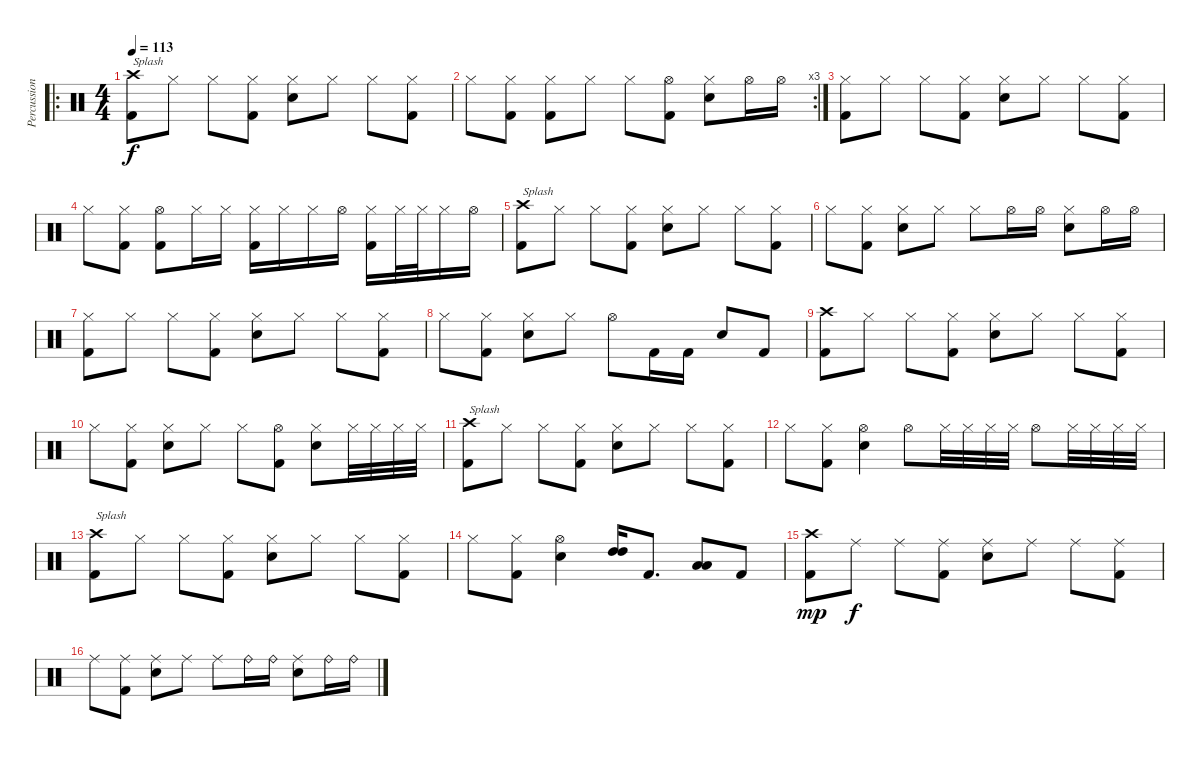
\track ("Percussion" "Percussion") {instrument percussion}
\staff {score}
\articulation defaults
\ro
\ts (4 4)
\tempo 113
\clef neutral
\ks c
("Crash high (hit)" "Kick (hit) 2").8{txt "Splash" dy f} "Hi-Hat (closed)".8 "Hi-Hat (closed)".8 ("Hi-Hat (closed)" "Kick (hit) 2").8 ("Hi-Hat (closed)" "Snare (hit) 2").8 "Hi-Hat (closed)".8 "Hi-Hat (closed)".8 ("Hi-Hat (closed)" "Kick (hit) 2").8 |
\rc 3 "Hi-Hat (closed)".8
("Hi-Hat (closed)" "Kick (hit) 2").8 ("Hi-Hat (closed)" "Kick (hit) 2").8 "Hi-Hat (closed)".8 "Hi-Hat (closed)".8 ("Hi-Hat (open)" "Kick (hit) 2").8 ("Hi-Hat (closed)" "Snare (hit) 2").8 "Hi-Hat (open)".16 "Hi-Hat (open)".16 |
("Hi-Hat (closed)" "Kick (hit) 2").8 "Hi-Hat (closed)".8 "Hi-Hat (closed)".8 ("Hi-Hat (closed)" "Kick (hit) 2").8 ("Hi-Hat (closed)" "Snare (hit) 2").8 "Hi-Hat (closed)".8 "Hi-Hat (closed)".8 ("Hi-Hat (closed)" "Kick (hit) 2").8 |
"Hi-Hat (closed)".8 ("Hi-Hat (closed)" "Kick (hit) 2").8 ("Hi-Hat (open)" "Kick (hit) 2").8 "Hi-Hat (closed)".16 "Hi-Hat (closed)".16 ("Hi-Hat (closed)" "Kick (hit) 2").16 "Hi-Hat (closed)".16 "Hi-Hat (closed)".16 "Hi-Hat (open)".16 ("Hi-Hat (closed)" "Kick (hit) 2").16 "Hi-Hat (closed)".32 "Hi-Hat (closed)".32 "Hi-Hat (closed)".16 "Hi-Hat (open)".16 |
("Crash high (hit)" "Kick (hit) 2").8{txt "Splash"} "Hi-Hat (closed)".8 "Hi-Hat (closed)".8 ("Hi-Hat (closed)" "Kick (hit) 2").8 ("Hi-Hat (closed)" "Snare (hit) 2").8 "Hi-Hat (closed)".8 "Hi-Hat (closed)".8 ("Hi-Hat (closed)" "Kick (hit) 2").8 |
"Hi-Hat (closed)".8 ("Hi-Hat (closed)" "Kick (hit) 2").8 ("Hi-Hat (closed)" "Snare (hit) 2").8 "Hi-Hat (closed)".8 "Hi-Hat (closed)".8 "Hi-Hat (open)".16 "Hi-Hat (open)".16 ("Hi-Hat (closed)" "Snare (hit) 2").8 "Hi-Hat (open)".16 "Hi-Hat (open)".16 |
("Hi-Hat (closed)" "Kick (hit) 2").8 "Hi-Hat (closed)".8 "Hi-Hat (closed)".8 ("Hi-Hat (closed)" "Kick (hit) 2").8 ("Hi-Hat (closed)" "Snare (hit) 2").8 "Hi-Hat (closed)".8 "Hi-Hat (closed)".8 ("Hi-Hat (closed)" "Kick (hit) 2").8 |
"Hi-Hat (closed)".8 ("Hi-Hat (closed)" "Kick (hit) 2").8 ("Hi-Hat (closed)" "Snare (hit) 2").8 "Hi-Hat (closed)".8 "Hi-Hat (open)".8 "Kick (hit) 2".16 "Kick (hit) 2".16 "Snare (hit) 2".8 "Kick (hit) 2".8 |
("Crash high (hit)" "Kick (hit) 2").8 "Hi-Hat (closed)".8 "Hi-Hat (closed)".8 ("Hi-Hat (closed)" "Kick (hit) 2").8 ("Hi-Hat (closed)" "Snare (hit) 2").8 "Hi-Hat (closed)".8 "Hi-Hat (closed)".8 ("Hi-Hat (closed)" "Kick (hit) 2").8 |
"Hi-Hat (closed)".8 ("Hi-Hat (closed)" "Kick (hit) 2").8 ("Hi-Hat (closed)" "Snare (hit) 2").8 "Hi-Hat (closed)".8 "Hi-Hat (closed)".8 ("Hi-Hat (open)" "Kick (hit) 2").8 ("Hi-Hat (closed)" "Snare (hit) 2").8 "Hi-Hat (closed)".32 "Hi-Hat (closed)".32 "Hi-Hat (closed)".32 "Hi-Hat (closed)".32 |
("Crash high (hit)" "Kick (hit) 2").8{txt "Splash"} "Hi-Hat (closed)".8 "Hi-Hat (closed)".8 ("Hi-Hat (closed)" "Kick (hit) 2").8 ("Hi-Hat (closed)" "Snare (hit) 2").8 "Hi-Hat (closed)".8 "Hi-Hat (closed)".8 ("Hi-Hat (closed)" "Kick (hit) 2").8 |
"Hi-Hat (closed)".8 ("Hi-Hat (closed)" "Kick (hit) 2").8 ("Hi-Hat (open)" "Snare (hit) 2").4 "Hi-Hat (open)".8 "Hi-Hat (closed)".32 "Hi-Hat (closed)".32 "Hi-Hat (closed)".32 "Hi-Hat (closed)".32 "Hi-Hat (open)".8 "Hi-Hat (closed)".32 "Hi-Hat (closed)".32 "Hi-Hat (closed)".32 "Hi-Hat (closed)".32 |
("Crash high (hit)" "Kick (hit) 2").8{txt "Splash"} "Hi-Hat (closed)".8 "Hi-Hat (closed)".8 ("Hi-Hat (closed)" "Kick (hit) 2").8 ("Hi-Hat (closed)" "Snare (hit) 2").8 "Hi-Hat (closed)".8 "Hi-Hat (closed)".8 ("Hi-Hat (closed)" "Kick (hit) 2").8 |
"Hi-Hat (closed)".8 ("Hi-Hat (closed)" "Kick (hit) 2").8 ("Hi-Hat (open)" "Snare (hit) 2").4 ("High Tom (hit)" "High Tom (hit)").16{bu 120} "Kick (hit) 2".8{d} ("Low Tom (hit)" "Low Tom (hit)").8{bd 240} "Kick (hit) 2".8 |
("Crash high (hit)" "Kick (hit) 2").8{dy mp} "Ride (middle)".8{dy f} "Ride (middle)".8 ("Ride (middle)" "Kick (hit) 2").8 ("Ride (middle)" "Snare (hit) 2").8 "Ride (middle)".8 "Ride (middle)".8 ("Ride (middle)" "Kick (hit) 2").8 |
"Ride (middle)".8 ("Ride (middle)" "Kick (hit) 2").8 ("Ride (middle)" "Snare (hit) 2").8 "Ride (middle)".8 "Ride (middle)".8 "Ride (bell)".16 "Ride (bell)".16 ("Ride (middle)" "Snare (hit) 2").8 "Ride (bell)".16 "Ride (bell)".16
